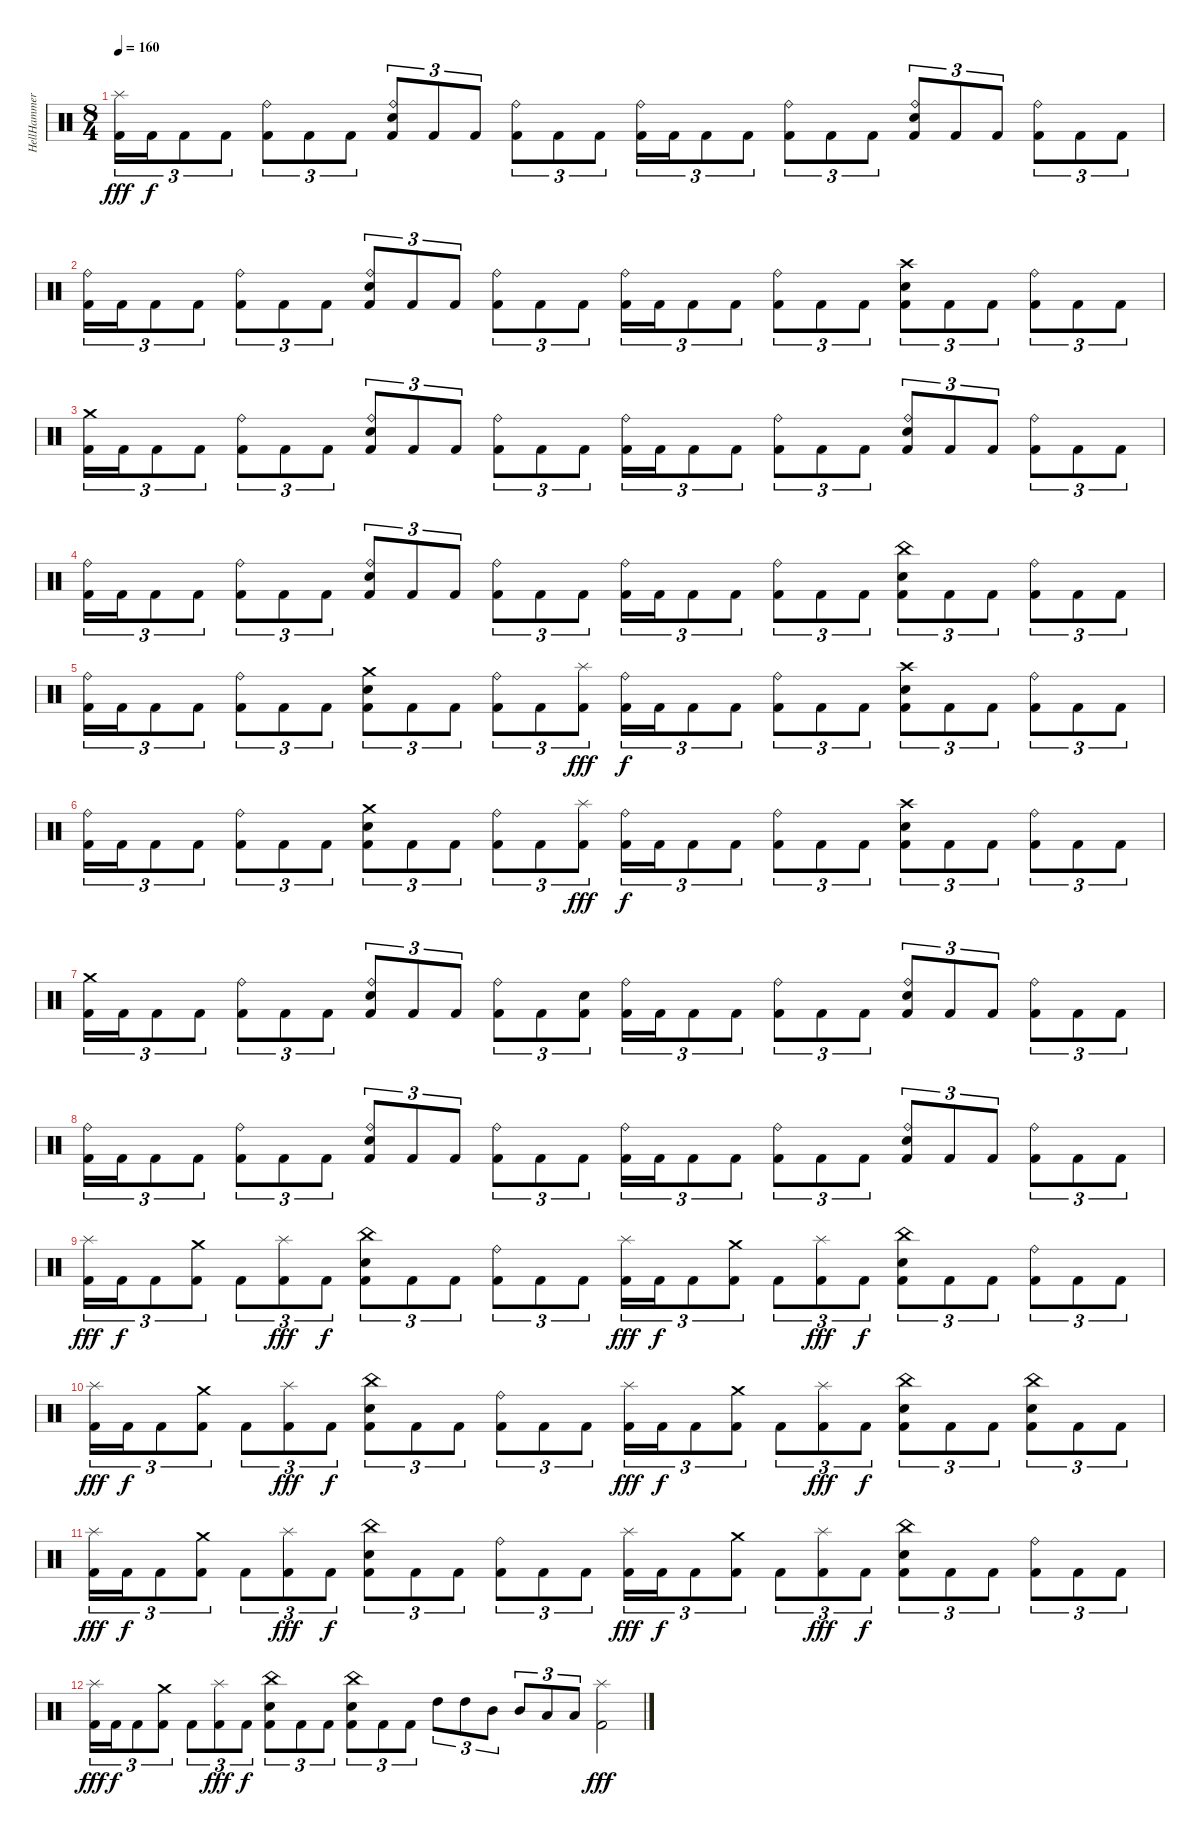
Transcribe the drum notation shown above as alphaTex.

\track ("HellHammer" "HellHammer") {instrument percussion}
\staff {score}
\articulation defaults
\ts (8 4)
\tempo 160
\clef neutral
\ks c
("Kick (hit) 2" "Splash (hit)").16{tu (3 2) dy fff} "Kick (hit) 2".16{tu (3 2) dy f} "Kick (hit) 2".8{tu (3 2)} "Kick (hit) 2".8{tu (3 2)} ("Kick (hit) 2" "Ride (bell)").8{tu (3 2)} "Kick (hit) 2".8{tu (3 2)} "Kick (hit) 2".8{tu (3 2)} ("Kick (hit) 2" "Electric Snare (hit)" "Ride (bell)").8{tu (3 2)} "Kick (hit) 2".8{tu (3 2)} "Kick (hit) 2".8{tu (3 2)} ("Kick (hit) 2" "Ride (bell)").8{tu (3 2)} "Kick (hit) 2".8{tu (3 2)} "Kick (hit) 2".8{tu (3 2)} ("Kick (hit) 2" "Ride (bell)").16{tu (3 2)} "Kick (hit) 2".16{tu (3 2)} "Kick (hit) 2".8{tu (3 2)} "Kick (hit) 2".8{tu (3 2)} ("Kick (hit) 2" "Ride (bell)").8{tu (3 2)} "Kick (hit) 2".8{tu (3 2)} "Kick (hit) 2".8{tu (3 2)} ("Kick (hit) 2" "Electric Snare (hit)" "Ride (bell)").8{tu (3 2)} "Kick (hit) 2".8{tu (3 2)} "Kick (hit) 2".8{tu (3 2)} ("Kick (hit) 2" "Ride (bell)").8{tu (3 2)} "Kick (hit) 2".8{tu (3 2)} "Kick (hit) 2".8{tu (3 2)} |
("Kick (hit) 2" "Ride (bell)").16{tu (3 2)} "Kick (hit) 2".16{tu (3 2)} "Kick (hit) 2".8{tu (3 2)} "Kick (hit) 2".8{tu (3 2)} ("Kick (hit) 2" "Ride (bell)").8{tu (3 2)} "Kick (hit) 2".8{tu (3 2)} "Kick (hit) 2".8{tu (3 2)} ("Kick (hit) 2" "Electric Snare (hit)" "Ride (bell)").8{tu (3 2)} "Kick (hit) 2".8{tu (3 2)} "Kick (hit) 2".8{tu (3 2)} ("Kick (hit) 2" "Ride (bell)").8{tu (3 2)} "Kick (hit) 2".8{tu (3 2)} "Kick (hit) 2".8{tu (3 2)} ("Kick (hit) 2" "Ride (bell)").16{tu (3 2)} "Kick (hit) 2".16{tu (3 2)} "Kick (hit) 2".8{tu (3 2)} "Kick (hit) 2".8{tu (3 2)} ("Kick (hit) 2" "Ride (bell)").8{tu (3 2)} "Kick (hit) 2".8{tu (3 2)} "Kick (hit) 2".8{tu (3 2)} ("Kick (hit) 2" "Electric Snare (hit)" "Crash high (hit)").8{tu (3 2)} "Kick (hit) 2".8{tu (3 2)} "Kick (hit) 2".8{tu (3 2)} ("Kick (hit) 2" "Ride (bell)").8{tu (3 2)} "Kick (hit) 2".8{tu (3 2)} "Kick (hit) 2".8{tu (3 2)} |
("Kick (hit) 2" "Crash medium (hit)").16{tu (3 2)} "Kick (hit) 2".16{tu (3 2)} "Kick (hit) 2".8{tu (3 2)} "Kick (hit) 2".8{tu (3 2)} ("Kick (hit) 2" "Ride (bell)").8{tu (3 2)} "Kick (hit) 2".8{tu (3 2)} "Kick (hit) 2".8{tu (3 2)} ("Kick (hit) 2" "Electric Snare (hit)" "Ride (bell)").8{tu (3 2)} "Kick (hit) 2".8{tu (3 2)} "Kick (hit) 2".8{tu (3 2)} ("Kick (hit) 2" "Ride (bell)").8{tu (3 2)} "Kick (hit) 2".8{tu (3 2)} "Kick (hit) 2".8{tu (3 2)} ("Kick (hit) 2" "Ride (bell)").16{tu (3 2)} "Kick (hit) 2".16{tu (3 2)} "Kick (hit) 2".8{tu (3 2)} "Kick (hit) 2".8{tu (3 2)} ("Kick (hit) 2" "Ride (bell)").8{tu (3 2)} "Kick (hit) 2".8{tu (3 2)} "Kick (hit) 2".8{tu (3 2)} ("Kick (hit) 2" "Electric Snare (hit)" "Ride (bell)").8{tu (3 2)} "Kick (hit) 2".8{tu (3 2)} "Kick (hit) 2".8{tu (3 2)} ("Kick (hit) 2" "Ride (bell)").8{tu (3 2)} "Kick (hit) 2".8{tu (3 2)} "Kick (hit) 2".8{tu (3 2)} |
("Kick (hit) 2" "Ride (bell)").16{tu (3 2)} "Kick (hit) 2".16{tu (3 2)} "Kick (hit) 2".8{tu (3 2)} "Kick (hit) 2".8{tu (3 2)} ("Kick (hit) 2" "Ride (bell)").8{tu (3 2)} "Kick (hit) 2".8{tu (3 2)} "Kick (hit) 2".8{tu (3 2)} ("Kick (hit) 2" "Electric Snare (hit)" "Ride (bell)").8{tu (3 2)} "Kick (hit) 2".8{tu (3 2)} "Kick (hit) 2".8{tu (3 2)} ("Kick (hit) 2" "Ride (bell)").8{tu (3 2)} "Kick (hit) 2".8{tu (3 2)} "Kick (hit) 2".8{tu (3 2)} ("Kick (hit) 2" "Ride (bell)").16{tu (3 2)} "Kick (hit) 2".16{tu (3 2)} "Kick (hit) 2".8{tu (3 2)} "Kick (hit) 2".8{tu (3 2)} ("Kick (hit) 2" "Ride (bell)").8{tu (3 2)} "Kick (hit) 2".8{tu (3 2)} "Kick (hit) 2".8{tu (3 2)} ("Kick (hit) 2" "Electric Snare (hit)" "China (hit)").8{tu (3 2)} "Kick (hit) 2".8{tu (3 2)} "Kick (hit) 2".8{tu (3 2)} ("Kick (hit) 2" "Ride (bell)").8{tu (3 2)} "Kick (hit) 2".8{tu (3 2)} "Kick (hit) 2".8{tu (3 2)} |
("Kick (hit) 2" "Ride (bell)").16{tu (3 2)} "Kick (hit) 2".16{tu (3 2)} "Kick (hit) 2".8{tu (3 2)} "Kick (hit) 2".8{tu (3 2)} ("Kick (hit) 2" "Ride (bell)").8{tu (3 2)} "Kick (hit) 2".8{tu (3 2)} "Kick (hit) 2".8{tu (3 2)} ("Kick (hit) 2" "Electric Snare (hit)" "Crash medium (hit)").8{tu (3 2)} "Kick (hit) 2".8{tu (3 2)} "Kick (hit) 2".8{tu (3 2)} ("Kick (hit) 2" "Ride (bell)").8{tu (3 2)} "Kick (hit) 2".8{tu (3 2)} ("Kick (hit) 2" "Splash (hit)").8{tu (3 2) dy fff} ("Kick (hit) 2" "Ride (bell)").16{tu (3 2) dy f} "Kick (hit) 2".16{tu (3 2)} "Kick (hit) 2".8{tu (3 2)} "Kick (hit) 2".8{tu (3 2)} ("Kick (hit) 2" "Ride (bell)").8{tu (3 2)} "Kick (hit) 2".8{tu (3 2)} "Kick (hit) 2".8{tu (3 2)} ("Kick (hit) 2" "Electric Snare (hit)" "Crash high (hit)").8{tu (3 2)} "Kick (hit) 2".8{tu (3 2)} "Kick (hit) 2".8{tu (3 2)} ("Kick (hit) 2" "Ride (bell)").8{tu (3 2)} "Kick (hit) 2".8{tu (3 2)} "Kick (hit) 2".8{tu (3 2)} |
("Kick (hit) 2" "Ride (bell)").16{tu (3 2)} "Kick (hit) 2".16{tu (3 2)} "Kick (hit) 2".8{tu (3 2)} "Kick (hit) 2".8{tu (3 2)} ("Kick (hit) 2" "Ride (bell)").8{tu (3 2)} "Kick (hit) 2".8{tu (3 2)} "Kick (hit) 2".8{tu (3 2)} ("Kick (hit) 2" "Electric Snare (hit)" "Crash medium (hit)").8{tu (3 2)} "Kick (hit) 2".8{tu (3 2)} "Kick (hit) 2".8{tu (3 2)} ("Kick (hit) 2" "Ride (bell)").8{tu (3 2)} "Kick (hit) 2".8{tu (3 2)} ("Kick (hit) 2" "Splash (hit)").8{tu (3 2) dy fff} ("Kick (hit) 2" "Ride (bell)").16{tu (3 2) dy f} "Kick (hit) 2".16{tu (3 2)} "Kick (hit) 2".8{tu (3 2)} "Kick (hit) 2".8{tu (3 2)} ("Kick (hit) 2" "Ride (bell)").8{tu (3 2)} "Kick (hit) 2".8{tu (3 2)} "Kick (hit) 2".8{tu (3 2)} ("Kick (hit) 2" "Electric Snare (hit)" "Crash high (hit)").8{tu (3 2)} "Kick (hit) 2".8{tu (3 2)} "Kick (hit) 2".8{tu (3 2)} ("Kick (hit) 2" "Ride (bell)").8{tu (3 2)} "Kick (hit) 2".8{tu (3 2)} "Kick (hit) 2".8{tu (3 2)} |
("Kick (hit) 2" "Crash medium (hit)").16{tu (3 2)} "Kick (hit) 2".16{tu (3 2)} "Kick (hit) 2".8{tu (3 2)} "Kick (hit) 2".8{tu (3 2)} ("Kick (hit) 2" "Ride (bell)").8{tu (3 2)} "Kick (hit) 2".8{tu (3 2)} "Kick (hit) 2".8{tu (3 2)} ("Kick (hit) 2" "Electric Snare (hit)" "Ride (bell)").8{tu (3 2)} "Kick (hit) 2".8{tu (3 2)} "Kick (hit) 2".8{tu (3 2)} ("Kick (hit) 2" "Ride (bell)").8{tu (3 2)} "Kick (hit) 2".8{tu (3 2)} ("Kick (hit) 2" "Electric Snare (hit)").8{tu (3 2)} ("Kick (hit) 2" "Ride (bell)").16{tu (3 2)} "Kick (hit) 2".16{tu (3 2)} "Kick (hit) 2".8{tu (3 2)} "Kick (hit) 2".8{tu (3 2)} ("Kick (hit) 2" "Ride (bell)").8{tu (3 2)} "Kick (hit) 2".8{tu (3 2)} "Kick (hit) 2".8{tu (3 2)} ("Kick (hit) 2" "Electric Snare (hit)" "Ride (bell)").8{tu (3 2)} "Kick (hit) 2".8{tu (3 2)} "Kick (hit) 2".8{tu (3 2)} ("Kick (hit) 2" "Ride (bell)").8{tu (3 2)} "Kick (hit) 2".8{tu (3 2)} "Kick (hit) 2".8{tu (3 2)} |
("Kick (hit) 2" "Ride (bell)").16{tu (3 2)} "Kick (hit) 2".16{tu (3 2)} "Kick (hit) 2".8{tu (3 2)} "Kick (hit) 2".8{tu (3 2)} ("Kick (hit) 2" "Ride (bell)").8{tu (3 2)} "Kick (hit) 2".8{tu (3 2)} "Kick (hit) 2".8{tu (3 2)} ("Kick (hit) 2" "Electric Snare (hit)" "Ride (bell)").8{tu (3 2)} "Kick (hit) 2".8{tu (3 2)} "Kick (hit) 2".8{tu (3 2)} ("Kick (hit) 2" "Ride (bell)").8{tu (3 2)} "Kick (hit) 2".8{tu (3 2)} "Kick (hit) 2".8{tu (3 2)} ("Kick (hit) 2" "Ride (bell)").16{tu (3 2)} "Kick (hit) 2".16{tu (3 2)} "Kick (hit) 2".8{tu (3 2)} "Kick (hit) 2".8{tu (3 2)} ("Kick (hit) 2" "Ride (bell)").8{tu (3 2)} "Kick (hit) 2".8{tu (3 2)} "Kick (hit) 2".8{tu (3 2)} ("Kick (hit) 2" "Electric Snare (hit)" "Ride (bell)").8{tu (3 2)} "Kick (hit) 2".8{tu (3 2)} "Kick (hit) 2".8{tu (3 2)} ("Kick (hit) 2" "Ride (bell)").8{tu (3 2)} "Kick (hit) 2".8{tu (3 2)} "Kick (hit) 2".8{tu (3 2)} |
("Kick (hit) 2" "Splash (hit)").16{tu (3 2) dy fff} "Kick (hit) 2".16{tu (3 2) dy f} "Kick (hit) 2".8{tu (3 2)} ("Kick (hit) 2" "Crash medium (hit)").8{tu (3 2)} "Kick (hit) 2".8{tu (3 2)} ("Kick (hit) 2" "Splash (hit)").8{tu (3 2) dy fff} "Kick (hit) 2".8{tu (3 2) dy f} ("Kick (hit) 2" "Electric Snare (hit)" "China (hit)").8{tu (3 2)} "Kick (hit) 2".8{tu (3 2)} "Kick (hit) 2".8{tu (3 2)} ("Kick (hit) 2" "Ride (bell)").8{tu (3 2)} "Kick (hit) 2".8{tu (3 2)} "Kick (hit) 2".8{tu (3 2)} ("Kick (hit) 2" "Splash (hit)").16{tu (3 2) dy fff} "Kick (hit) 2".16{tu (3 2) dy f} "Kick (hit) 2".8{tu (3 2)} ("Kick (hit) 2" "Crash medium (hit)").8{tu (3 2)} "Kick (hit) 2".8{tu (3 2)} ("Kick (hit) 2" "Splash (hit)").8{tu (3 2) dy fff} "Kick (hit) 2".8{tu (3 2) dy f} ("Kick (hit) 2" "Electric Snare (hit)" "China (hit)").8{tu (3 2)} "Kick (hit) 2".8{tu (3 2)} "Kick (hit) 2".8{tu (3 2)} ("Kick (hit) 2" "Ride (bell)").8{tu (3 2)} "Kick (hit) 2".8{tu (3 2)} "Kick (hit) 2".8{tu (3 2)} |
("Kick (hit) 2" "Splash (hit)").16{tu (3 2) dy fff} "Kick (hit) 2".16{tu (3 2) dy f} "Kick (hit) 2".8{tu (3 2)} ("Kick (hit) 2" "Crash medium (hit)").8{tu (3 2)} "Kick (hit) 2".8{tu (3 2)} ("Kick (hit) 2" "Splash (hit)").8{tu (3 2) dy fff} "Kick (hit) 2".8{tu (3 2) dy f} ("Kick (hit) 2" "Electric Snare (hit)" "China (hit)").8{tu (3 2)} "Kick (hit) 2".8{tu (3 2)} "Kick (hit) 2".8{tu (3 2)} ("Kick (hit) 2" "Ride (bell)").8{tu (3 2)} "Kick (hit) 2".8{tu (3 2)} "Kick (hit) 2".8{tu (3 2)} ("Kick (hit) 2" "Splash (hit)").16{tu (3 2) dy fff} "Kick (hit) 2".16{tu (3 2) dy f} "Kick (hit) 2".8{tu (3 2)} ("Kick (hit) 2" "Crash medium (hit)").8{tu (3 2)} "Kick (hit) 2".8{tu (3 2)} ("Kick (hit) 2" "Splash (hit)").8{tu (3 2) dy fff} "Kick (hit) 2".8{tu (3 2) dy f} ("Kick (hit) 2" "Electric Snare (hit)" "China (hit)").8{tu (3 2)} "Kick (hit) 2".8{tu (3 2)} "Kick (hit) 2".8{tu (3 2)} ("Kick (hit) 2" "Electric Snare (hit)" "China (hit)").8{tu (3 2)} "Kick (hit) 2".8{tu (3 2)} "Kick (hit) 2".8{tu (3 2)} |
("Kick (hit) 2" "Splash (hit)").16{tu (3 2) dy fff} "Kick (hit) 2".16{tu (3 2) dy f} "Kick (hit) 2".8{tu (3 2)} ("Kick (hit) 2" "Crash medium (hit)").8{tu (3 2)} "Kick (hit) 2".8{tu (3 2)} ("Kick (hit) 2" "Splash (hit)").8{tu (3 2) dy fff} "Kick (hit) 2".8{tu (3 2) dy f} ("Kick (hit) 2" "Electric Snare (hit)" "China (hit)").8{tu (3 2)} "Kick (hit) 2".8{tu (3 2)} "Kick (hit) 2".8{tu (3 2)} ("Kick (hit) 2" "Ride (bell)").8{tu (3 2)} "Kick (hit) 2".8{tu (3 2)} "Kick (hit) 2".8{tu (3 2)} ("Kick (hit) 2" "Splash (hit)").16{tu (3 2) dy fff} "Kick (hit) 2".16{tu (3 2) dy f} "Kick (hit) 2".8{tu (3 2)} ("Kick (hit) 2" "Crash medium (hit)").8{tu (3 2)} "Kick (hit) 2".8{tu (3 2)} ("Kick (hit) 2" "Splash (hit)").8{tu (3 2) dy fff} "Kick (hit) 2".8{tu (3 2) dy f} ("Kick (hit) 2" "Electric Snare (hit)" "China (hit)").8{tu (3 2)} "Kick (hit) 2".8{tu (3 2)} "Kick (hit) 2".8{tu (3 2)} ("Kick (hit) 2" "Ride (bell)").8{tu (3 2)} "Kick (hit) 2".8{tu (3 2)} "Kick (hit) 2".8{tu (3 2)} |
("Kick (hit) 2" "Splash (hit)").16{tu (3 2) dy fff} "Kick (hit) 2".16{tu (3 2) dy f} "Kick (hit) 2".8{tu (3 2)} ("Kick (hit) 2" "Crash medium (hit)").8{tu (3 2)} "Kick (hit) 2".8{tu (3 2)} ("Kick (hit) 2" "Splash (hit)").8{tu (3 2) dy fff} "Kick (hit) 2".8{tu (3 2) dy f} ("Kick (hit) 2" "Electric Snare (hit)" "China (hit)").8{tu (3 2)} "Kick (hit) 2".8{tu (3 2)} "Kick (hit) 2".8{tu (3 2)} ("Kick (hit) 2" "Electric Snare (hit)" "China (hit)").8{tu (3 2)} "Kick (hit) 2".8{tu (3 2)} "Kick (hit) 2".8{tu (3 2)} "High Tom (hit)".8{tu (3 2)} "High Tom (hit)".8{tu (3 2)} "Mid Tom (hit)".8{tu (3 2)} "Mid Tom (hit)".8{tu (3 2)} "Low Tom (hit)".8{tu (3 2)} "Low Tom (hit)".8{tu (3 2)} ("Kick (hit) 2" "Splash (hit)").2{dy fff}
